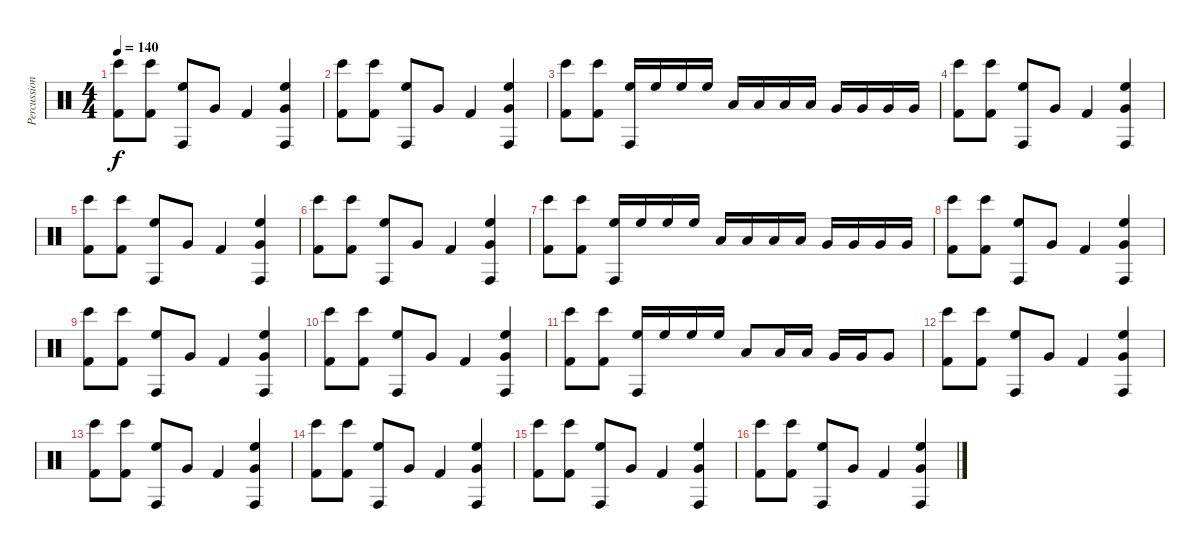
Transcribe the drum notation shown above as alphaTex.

\track ("Percussion" "Percussion") {instrument percussion}
\staff {score}
\articulation defaults
\ts (4 4)
\tempo 140
\clef neutral
\ks c
("Bongo High (hit)" "Kick (hit) 2").8{dy f} ("Bongo High (hit)" "Kick (hit) 2").8 ("Conga high (hit)" "High Floor Tom (hit)").8 "Very Low Tom (hit)".8 "Kick (hit) 2".4 ("Conga high (hit)" "High Floor Tom (hit)" "Very Low Tom (hit)").4 |
("Bongo High (hit)" "Kick (hit) 2").8 ("Bongo High (hit)" "Kick (hit) 2").8 ("Conga high (hit)" "High Floor Tom (hit)").8 "Very Low Tom (hit)".8 "Kick (hit) 2".4 ("Conga high (hit)" "High Floor Tom (hit)" "Very Low Tom (hit)").4 |
("Bongo High (hit)" "Kick (hit) 2").8 ("Bongo High (hit)" "Kick (hit) 2").8 ("Conga high (hit)" "High Floor Tom (hit)").16 "High Floor Tom (hit)".16 "High Floor Tom (hit)".16 "High Floor Tom (hit)".16 "Low Tom (hit)".16 "Low Tom (hit)".16 "Low Tom (hit)".16 "Low Tom (hit)".16 "Very Low Tom (hit)".16 "Very Low Tom (hit)".16 "Very Low Tom (hit)".16 "Very Low Tom (hit)".16 |
("Bongo High (hit)" "Kick (hit) 2").8 ("Bongo High (hit)" "Kick (hit) 2").8 ("Conga high (hit)" "High Floor Tom (hit)").8 "Very Low Tom (hit)".8 "Kick (hit) 2".4 ("Conga high (hit)" "High Floor Tom (hit)" "Very Low Tom (hit)").4 |
("Bongo High (hit)" "Kick (hit) 2").8 ("Bongo High (hit)" "Kick (hit) 2").8 ("Conga high (hit)" "High Floor Tom (hit)").8 "Very Low Tom (hit)".8 "Kick (hit) 2".4 ("Conga high (hit)" "High Floor Tom (hit)" "Very Low Tom (hit)").4 |
("Bongo High (hit)" "Kick (hit) 2").8 ("Bongo High (hit)" "Kick (hit) 2").8 ("Conga high (hit)" "High Floor Tom (hit)").8 "Very Low Tom (hit)".8 "Kick (hit) 2".4 ("Conga high (hit)" "High Floor Tom (hit)" "Very Low Tom (hit)").4 |
("Bongo High (hit)" "Kick (hit) 2").8 ("Bongo High (hit)" "Kick (hit) 2").8 ("Conga high (hit)" "High Floor Tom (hit)").16 "High Floor Tom (hit)".16 "High Floor Tom (hit)".16 "High Floor Tom (hit)".16 "Low Tom (hit)".16 "Low Tom (hit)".16 "Low Tom (hit)".16 "Low Tom (hit)".16 "Very Low Tom (hit)".16 "Very Low Tom (hit)".16 "Very Low Tom (hit)".16 "Very Low Tom (hit)".16 |
("Bongo High (hit)" "Kick (hit) 2").8 ("Bongo High (hit)" "Kick (hit) 2").8 ("Conga high (hit)" "High Floor Tom (hit)").8 "Very Low Tom (hit)".8 "Kick (hit) 2".4 ("Conga high (hit)" "High Floor Tom (hit)" "Very Low Tom (hit)").4 |
("Bongo High (hit)" "Kick (hit) 2").8 ("Bongo High (hit)" "Kick (hit) 2").8 ("Conga high (hit)" "High Floor Tom (hit)").8 "Very Low Tom (hit)".8 "Kick (hit) 2".4 ("Conga high (hit)" "High Floor Tom (hit)" "Very Low Tom (hit)").4 |
("Bongo High (hit)" "Kick (hit) 2").8 ("Bongo High (hit)" "Kick (hit) 2").8 ("Conga high (hit)" "High Floor Tom (hit)").8 "Very Low Tom (hit)".8 "Kick (hit) 2".4 ("Conga high (hit)" "High Floor Tom (hit)" "Very Low Tom (hit)").4 |
("Bongo High (hit)" "Kick (hit) 2").8 ("Bongo High (hit)" "Kick (hit) 2").8 ("Conga high (hit)" "High Floor Tom (hit)").16 "High Floor Tom (hit)".16 "High Floor Tom (hit)".16 "High Floor Tom (hit)".16 "Low Tom (hit)".8 "Low Tom (hit)".16 "Low Tom (hit)".16 "Very Low Tom (hit)".16 "Very Low Tom (hit)".16 "Very Low Tom (hit)".8 |
("Bongo High (hit)" "Kick (hit) 2").8 ("Bongo High (hit)" "Kick (hit) 2").8 ("Conga high (hit)" "High Floor Tom (hit)").8 "Very Low Tom (hit)".8 "Kick (hit) 2".4 ("Conga high (hit)" "High Floor Tom (hit)" "Very Low Tom (hit)").4 |
("Bongo High (hit)" "Kick (hit) 2").8 ("Bongo High (hit)" "Kick (hit) 2").8 ("Conga high (hit)" "High Floor Tom (hit)").8 "Very Low Tom (hit)".8 "Kick (hit) 2".4 ("Conga high (hit)" "High Floor Tom (hit)" "Very Low Tom (hit)").4 |
("Bongo High (hit)" "Kick (hit) 2").8 ("Bongo High (hit)" "Kick (hit) 2").8 ("Conga high (hit)" "High Floor Tom (hit)").8 "Very Low Tom (hit)".8 "Kick (hit) 2".4 ("Conga high (hit)" "High Floor Tom (hit)" "Very Low Tom (hit)").4 |
("Bongo High (hit)" "Kick (hit) 2").8 ("Bongo High (hit)" "Kick (hit) 2").8 ("Conga high (hit)" "High Floor Tom (hit)").8 "Very Low Tom (hit)".8 "Kick (hit) 2".4 ("Conga high (hit)" "High Floor Tom (hit)" "Very Low Tom (hit)").4 |
("Bongo High (hit)" "Kick (hit) 2").8 ("Bongo High (hit)" "Kick (hit) 2").8 ("Conga high (hit)" "High Floor Tom (hit)").8 "Very Low Tom (hit)".8 "Kick (hit) 2".4 ("Conga high (hit)" "High Floor Tom (hit)" "Very Low Tom (hit)").4
